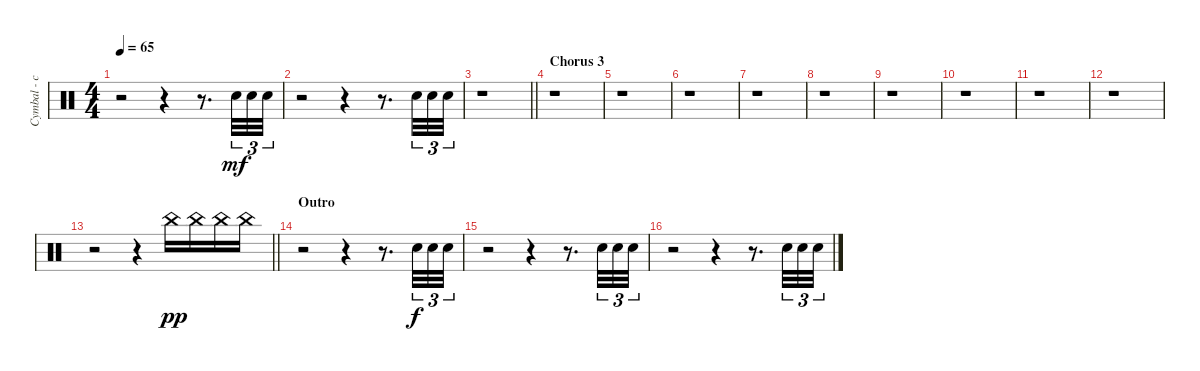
\track ("Cymbal - china" "Cymbal - c") {instrument percussion}
\staff {score}
\articulation defaults
\ts (4 4)
\tempo 65
\clef neutral
\ks c
r.2{dy mf} r.4 r.8{d} "Snare (hit) 2".32{tu (3 2)} "Snare (hit) 2".32{tu (3 2)} "Snare (hit) 2".32{tu (3 2)} |
r.2 r.4 r.8{d} "Snare (hit) 2".32{tu (3 2)} "Snare (hit) 2".32{tu (3 2)} "Snare (hit) 2".32{tu (3 2)} |
\barLineRight lightlight
r.1 |
\section ("" "Chorus 3")
r.1 |
r.1 |
r.1 |
r.1 |
r.1 |
r.1 |
r.1 |
r.1 |
r.1 |
\barLineRight lightlight
r.2 r.4{volume 13 balance 4} "China (hit)".16{dy pp} "China (hit)".16 "China (hit)".16 "China (hit)".16 |
\section ("" "Outro")
r.2 r.4{volume 3 balance 8} r.8{d} "Snare (hit) 2".32{tu (3 2) dy f} "Snare (hit) 2".32{tu (3 2)} "Snare (hit) 2".32{tu (3 2)} |
r.2 r.4 r.8{d} "Snare (hit) 2".32{tu (3 2)} "Snare (hit) 2".32{tu (3 2)} "Snare (hit) 2".32{tu (3 2)} |
r.2 r.4 r.8{d} "Snare (hit) 2".32{tu (3 2)} "Snare (hit) 2".32{tu (3 2)} "Snare (hit) 2".32{tu (3 2)}
